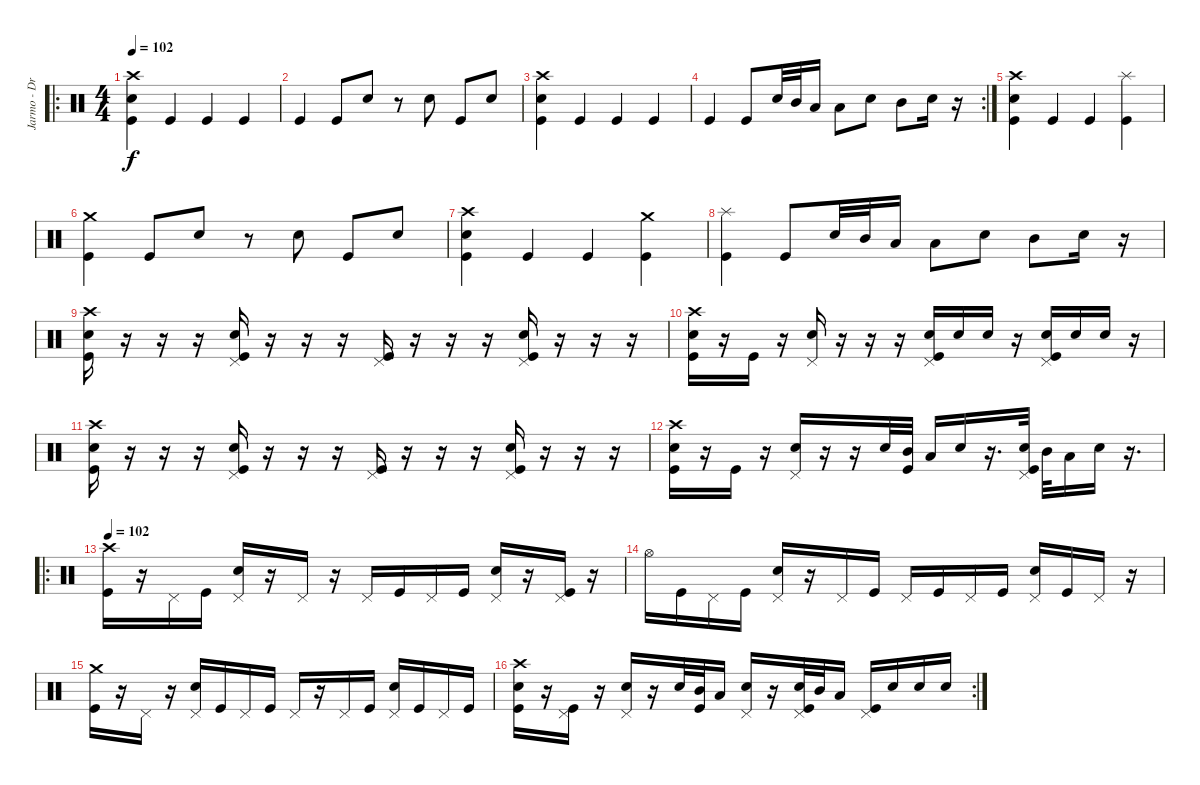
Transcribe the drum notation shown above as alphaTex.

\track ("Jarmo - Drums" "Jarmo - Dr") {instrument percussion}
\staff {score}
\articulation defaults
\ro
\ts (4 4)
\tempo 102
\tempo 124
\tempo 102
\clef neutral
\ks c
("Crash high (hit)" "Electric Snare (hit)" "Kick (hit)").4{dy f} "Kick (hit)".4 "Kick (hit)".4 "Kick (hit)".4 |
"Kick (hit)".4 "Kick (hit)".8 "Electric Snare (hit)".8 r.8 "Electric Snare (hit)".8 "Kick (hit)".8 "Electric Snare (hit)".8 |
("Crash high (hit)" "Electric Snare (hit)" "Kick (hit)").4 "Kick (hit)".4 "Kick (hit)".4 "Kick (hit)".4 |
\rc 2 "Kick (hit)".4 "Kick (hit)".8 "Electric Snare (hit)".32 "Mid Tom (hit)".32 "Low Tom (hit)".16 "Low Tom (hit)".8 "Electric Snare (hit)".8 "Mid Tom (hit)".8 "Electric Snare (hit)".16
r.16 |
("Crash high (hit)" "Electric Snare (hit)" "Kick (hit)").4 "Kick (hit)".4 "Kick (hit)".4 ("Kick (hit)" "Splash (hit)").4 |
("Kick (hit)" "Crash medium (hit)").4 "Kick (hit)".8 "Electric Snare (hit)".8 r.8 "Electric Snare (hit)".8 "Kick (hit)".8 "Electric Snare (hit)".8 |
("Crash high (hit)" "Electric Snare (hit)" "Kick (hit)").4 "Kick (hit)".4 "Kick (hit)".4 ("Kick (hit)" "Crash medium (hit)").4 |
("Kick (hit)" "Splash (hit)").4 "Kick (hit)".8 "Electric Snare (hit)".32 "Mid Tom (hit)".32 "Low Tom (hit)".16 "Low Tom (hit)".8 "Electric Snare (hit)".8 "Mid Tom (hit)".8 "Electric Snare (hit)".16 r.16 |
("Kick (hit)" "Electric Snare (hit)" "Crash high (hit)").16 r.16 r.16 r.16 ("Kick (hit)" "Electric Snare (hit)" "Pedal Hi-Hat (hit)").16 r.16 r.16 r.16 ("Kick (hit)" "Pedal Hi-Hat (hit)").16 r.16 r.16 r.16 ("Kick (hit)" "Electric Snare (hit)" "Pedal Hi-Hat (hit)").16 r.16 r.16 r.16 |
("Kick (hit)" "Electric Snare (hit)" "Crash high (hit)").16 r.16 "Kick (hit)".16 r.16 ("Electric Snare (hit)" "Pedal Hi-Hat (hit)").16 r.16 r.16 r.16 ("Kick (hit)" "Electric Snare (hit)" "Pedal Hi-Hat (hit)").16 "Electric Snare (hit)".16 "Electric Snare (hit)".16 r.16 ("Kick (hit)" "Electric Snare (hit)" "Pedal Hi-Hat (hit)").16 "Electric Snare (hit)".16 "Electric Snare (hit)".16 r.16 |
("Kick (hit)" "Electric Snare (hit)" "Crash high (hit)").16 r.16 r.16 r.16 ("Kick (hit)" "Electric Snare (hit)" "Pedal Hi-Hat (hit)").16 r.16 r.16 r.16 ("Kick (hit)" "Pedal Hi-Hat (hit)").16 r.16 r.16 r.16 ("Kick (hit)" "Electric Snare (hit)" "Pedal Hi-Hat (hit)").16 r.16 r.16 r.16 |
("Kick (hit)" "Electric Snare (hit)" "Crash high (hit)").16 r.16 "Kick (hit)".16 r.16 ("Electric Snare (hit)" "Pedal Hi-Hat (hit)").16 r.16 r.16 "Electric Snare (hit)".32 ("Kick (hit)" "Mid Tom (hit)").32 "Low Tom (hit)".16 "Electric Snare (hit)".16 r.16{d} ("Kick (hit)" "Electric Snare (hit)" "Pedal Hi-Hat (hit)").32 "Mid Tom (hit)".32 "Low Tom (hit)".16 "Electric Snare (hit)".16 r.16{d} |
\ro
\tempo 102
("Kick (hit)" "Crash high (hit)").16 r.16 "Pedal Hi-Hat (hit)".16 "Kick (hit)".16 ("Electric Snare (hit)" "Pedal Hi-Hat (hit)").16 r.16 "Pedal Hi-Hat (hit)".16 r.16 "Pedal Hi-Hat (hit)".16 "Kick (hit)".16 "Pedal Hi-Hat (hit)".16 "Kick (hit)".16 ("Electric Snare (hit)" "Pedal Hi-Hat (hit)").16 r.16 ("Kick (hit)" "Pedal Hi-Hat (hit)").16 r.16 |
"Hi-Hat (open)".16 "Kick (hit)".16 "Pedal Hi-Hat (hit)".16 "Kick (hit)".16 ("Electric Snare (hit)" "Pedal Hi-Hat (hit)").16 r.16 "Pedal Hi-Hat (hit)".16 "Kick (hit)".16 "Pedal Hi-Hat (hit)".16 "Kick (hit)".16 "Pedal Hi-Hat (hit)".16 "Kick (hit)".16 ("Electric Snare (hit)" "Pedal Hi-Hat (hit)").16 "Kick (hit)".16 "Pedal Hi-Hat (hit)".16 r.16 |
("Kick (hit)" "Crash medium (hit)").16 r.16 "Pedal Hi-Hat (hit)".16 r.16 ("Electric Snare (hit)" "Pedal Hi-Hat (hit)").16 "Kick (hit)".16 "Pedal Hi-Hat (hit)".16 "Kick (hit)".16 "Pedal Hi-Hat (hit)".16 r.16 "Pedal Hi-Hat (hit)".16 "Kick (hit)".16 ("Electric Snare (hit)" "Pedal Hi-Hat (hit)").16 "Kick (hit)".16 "Pedal Hi-Hat (hit)".16 "Kick (hit)".16 |
\rc 2
("Kick (hit)" "Electric Snare (hit)" "Crash high (hit)").16 r.16 ("Kick (hit)" "Pedal Hi-Hat (hit)").16 r.16 ("Electric Snare (hit)" "Pedal Hi-Hat (hit)").16 r.16 "Electric Snare (hit)".32 ("Kick (hit)" "Mid Tom (hit)").32 "Low Tom (hit)".16 ("Electric Snare (hit)" "Pedal Hi-Hat (hit)").16 r.16 ("Kick (hit)" "Electric Snare (hit)" "Pedal Hi-Hat (hit)").32 "Mid Tom (hit)".32 "Low Tom (hit)".16 ("Kick (hit)" "Pedal Hi-Hat (hit)").16 "Electric Snare (hit)".16 "Electric Snare (hit)".16 "Electric Snare (hit)".16
